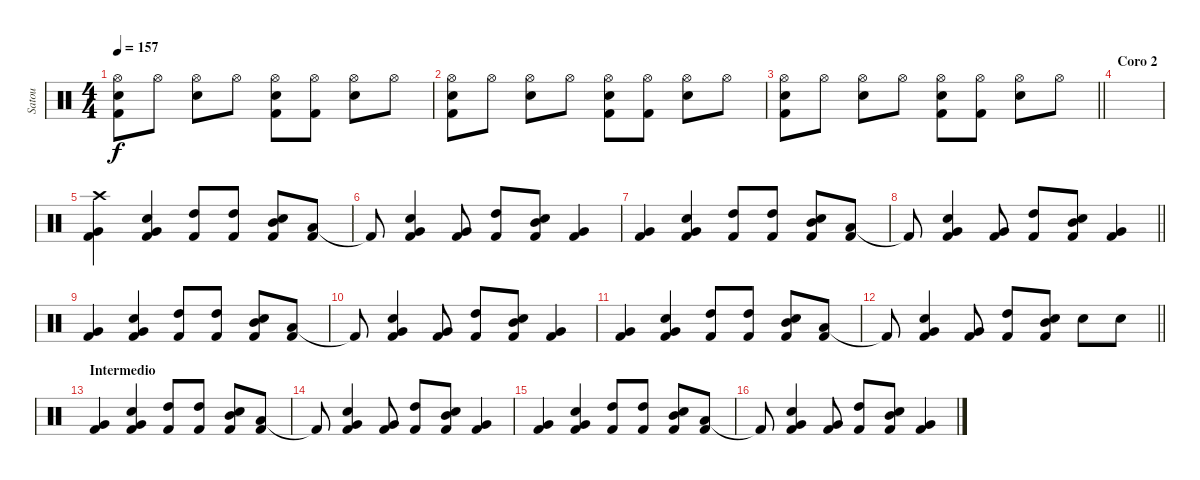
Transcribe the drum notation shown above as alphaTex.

\track ("Satou" "Satou") {instrument percussion}
\staff {score}
\articulation defaults
\ts (4 4)
\tempo 157
\clef neutral
\ks c
("Hi-Hat (open)" "Kick (hit) 2" "Snare (hit) 2").8{dy f} "Hi-Hat (open)".8 ("Hi-Hat (open)" "Snare (hit) 2").8 "Hi-Hat (open)".8 ("Hi-Hat (open)" "Kick (hit) 2" "Snare (hit) 2").8 ("Hi-Hat (open)" "Kick (hit) 2").8 ("Hi-Hat (open)" "Snare (hit) 2").8 "Hi-Hat (open)".8 |
("Hi-Hat (open)" "Kick (hit) 2" "Snare (hit) 2").8 "Hi-Hat (open)".8 ("Hi-Hat (open)" "Snare (hit) 2").8 "Hi-Hat (open)".8 ("Hi-Hat (open)" "Kick (hit) 2" "Snare (hit) 2").8 ("Hi-Hat (open)" "Kick (hit) 2").8 ("Hi-Hat (open)" "Snare (hit) 2").8 "Hi-Hat (open)".8 |
\barLineRight lightlight
("Hi-Hat (open)" "Kick (hit) 2" "Snare (hit) 2").8 "Hi-Hat (open)".8 ("Hi-Hat (open)" "Snare (hit) 2").8 "Hi-Hat (open)".8 ("Hi-Hat (open)" "Kick (hit) 2" "Snare (hit) 2").8 ("Hi-Hat (open)" "Kick (hit) 2").8 ("Hi-Hat (open)" "Snare (hit) 2").8 "Hi-Hat (open)".8 |
\section ("" "Coro 2")
|
("Very Low Tom (hit)" "Kick (hit) 2" "Crash high (hit)").4 ("Very Low Tom (hit)" "Kick (hit) 2" "Snare (hit) 2").4 ("High Tom (hit)" "Kick (hit) 2").8 ("High Tom (hit)" "Kick (hit) 2").8 ("Mid Tom (hit)" "Kick (hit) 2" "Snare (hit) 2").8 ("Low Tom (hit)" "Kick (hit) 2").8 |
"Kick (hit) 2"{t}.8 ("Very Low Tom (hit)" "Kick (hit) 2" "Snare (hit) 2").4 ("Very Low Tom (hit)" "Kick (hit) 2").8 ("High Tom (hit)" "Kick (hit) 2").8 ("Mid Tom (hit)" "Kick (hit) 2" "Snare (hit) 2").8 ("Very Low Tom (hit)" "Kick (hit) 2").4 |
("Very Low Tom (hit)" "Kick (hit) 2").4 ("Very Low Tom (hit)" "Kick (hit) 2" "Snare (hit) 2").4 ("High Tom (hit)" "Kick (hit) 2").8 ("High Tom (hit)" "Kick (hit) 2").8 ("Mid Tom (hit)" "Kick (hit) 2" "Snare (hit) 2").8 ("Low Tom (hit)" "Kick (hit) 2").8 |
\barLineRight lightlight "Kick (hit) 2"{t}.8
("Very Low Tom (hit)" "Kick (hit) 2" "Snare (hit) 2").4 ("Very Low Tom (hit)" "Kick (hit) 2").8 ("High Tom (hit)" "Kick (hit) 2").8 ("Mid Tom (hit)" "Kick (hit) 2" "Snare (hit) 2").8 ("Very Low Tom (hit)" "Kick (hit) 2").4 |
("Very Low Tom (hit)" "Kick (hit) 2").4 ("Very Low Tom (hit)" "Kick (hit) 2" "Snare (hit) 2").4 ("High Tom (hit)" "Kick (hit) 2").8 ("High Tom (hit)" "Kick (hit) 2").8 ("Mid Tom (hit)" "Kick (hit) 2" "Snare (hit) 2").8 ("Low Tom (hit)" "Kick (hit) 2").8 |
"Kick (hit) 2"{t}.8 ("Very Low Tom (hit)" "Kick (hit) 2" "Snare (hit) 2").4 ("Very Low Tom (hit)" "Kick (hit) 2").8 ("High Tom (hit)" "Kick (hit) 2").8 ("Mid Tom (hit)" "Kick (hit) 2" "Snare (hit) 2").8 ("Very Low Tom (hit)" "Kick (hit) 2").4 |
("Very Low Tom (hit)" "Kick (hit) 2").4 ("Very Low Tom (hit)" "Kick (hit) 2" "Snare (hit) 2").4 ("High Tom (hit)" "Kick (hit) 2").8 ("High Tom (hit)" "Kick (hit) 2").8 ("Mid Tom (hit)" "Kick (hit) 2" "Snare (hit) 2").8 ("Low Tom (hit)" "Kick (hit) 2").8 |
\barLineRight lightlight "Kick (hit) 2"{t}.8
("Very Low Tom (hit)" "Kick (hit) 2" "Snare (hit) 2").4 ("Very Low Tom (hit)" "Kick (hit) 2").8 ("High Tom (hit)" "Kick (hit) 2").8 ("Mid Tom (hit)" "Kick (hit) 2" "Snare (hit) 2").8 "Snare (hit) 2".8 "Snare (hit) 2".8 |
\section ("" "Intermedio")
("Very Low Tom (hit)" "Kick (hit) 2").4 ("Very Low Tom (hit)" "Kick (hit) 2" "Snare (hit) 2").4 ("High Tom (hit)" "Kick (hit) 2").8 ("High Tom (hit)" "Kick (hit) 2").8 ("Mid Tom (hit)" "Kick (hit) 2" "Snare (hit) 2").8 ("Low Tom (hit)" "Kick (hit) 2").8 |
"Kick (hit) 2"{t}.8 ("Very Low Tom (hit)" "Kick (hit) 2" "Snare (hit) 2").4 ("Very Low Tom (hit)" "Kick (hit) 2").8 ("High Tom (hit)" "Kick (hit) 2").8 ("Mid Tom (hit)" "Kick (hit) 2" "Snare (hit) 2").8 ("Very Low Tom (hit)" "Kick (hit) 2").4 |
("Very Low Tom (hit)" "Kick (hit) 2").4 ("Very Low Tom (hit)" "Kick (hit) 2" "Snare (hit) 2").4 ("High Tom (hit)" "Kick (hit) 2").8 ("High Tom (hit)" "Kick (hit) 2").8 ("Mid Tom (hit)" "Kick (hit) 2" "Snare (hit) 2").8 ("Low Tom (hit)" "Kick (hit) 2").8 |
"Kick (hit) 2"{t}.8 ("Very Low Tom (hit)" "Kick (hit) 2" "Snare (hit) 2").4 ("Very Low Tom (hit)" "Kick (hit) 2").8 ("High Tom (hit)" "Kick (hit) 2").8 ("Mid Tom (hit)" "Kick (hit) 2" "Snare (hit) 2").8 ("Very Low Tom (hit)" "Kick (hit) 2").4
